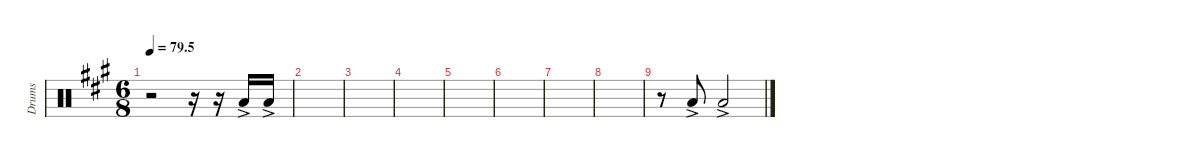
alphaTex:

\defaultSystemsLayout 4
\hideDynamics
\bracketExtendMode nobrackets
\otherSystemsTrackNameOrientation horizontal
\track ("Tom 03" "Drums") {instrument percussion}
\staff {score}
\articulation defaults
\ts (6 8)
\tempo
79.5
\accidentals auto
\clef neutral
\ottava regular
\simile none
\scale
0.333333
\ks a
r.2{dy f} r.16 r.16 "Low Tom (hit)"{ac acc forcenatural}.16 "Low Tom (hit)"{ac acc forcenatural}.16 |
\scale
0.333333 |
\scale
0.333333 |
\scale
0.333333 |
\scale
0.333333 |
\scale
0.333333 |
\scale
0.333333 |
\scale
0.333333 |
\scale
0.333333 r.8 "Low Tom (hit)"{ac acc forcenatural}.8 "Low Tom (hit)"{ac acc forcenatural}.2 |
\scale
0.333333 |
\scale
0.333333 |
\scale
0.333333
